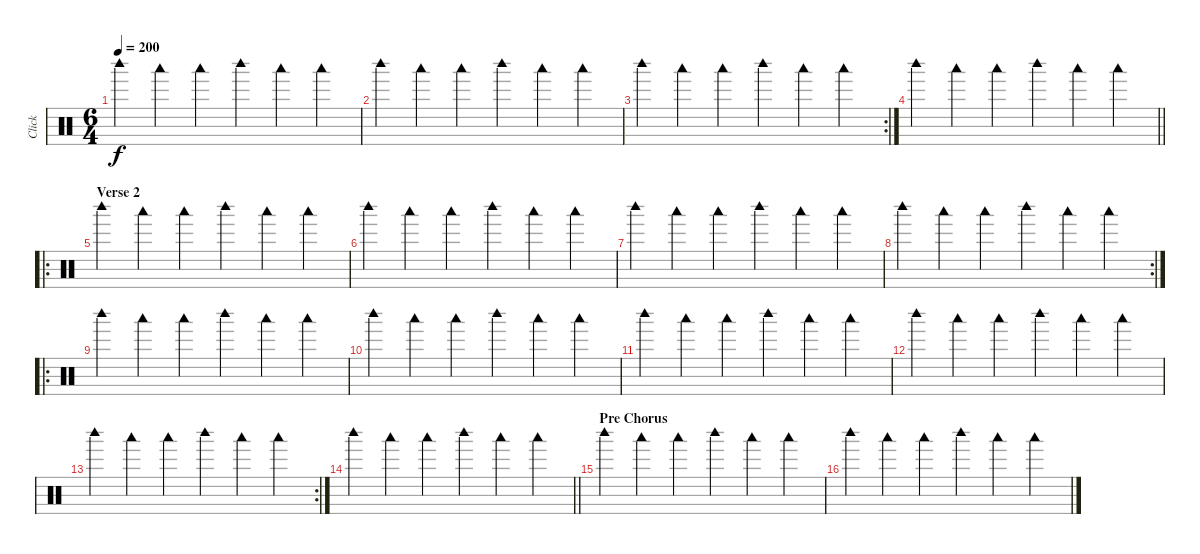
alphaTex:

\track ("Click" "Click") {mute instrument percussion}
\staff {score}
\articulation defaults
\ts (6 4)
\tempo 200
\clef neutral
\ks c "Woodblock high (hit)".4{dy f} "Woodblock low (hit)".4 "Woodblock low (hit)".4 "Woodblock high (hit)".4 "Woodblock low (hit)".4 "Woodblock low (hit)".4
|
"Woodblock high (hit)".4 "Woodblock low (hit)".4 "Woodblock low (hit)".4 "Woodblock high (hit)".4 "Woodblock low (hit)".4 "Woodblock low (hit)".4 |
\rc 2 "Woodblock high (hit)".4 "Woodblock low (hit)".4 "Woodblock low (hit)".4 "Woodblock high (hit)".4 "Woodblock low (hit)".4 "Woodblock low (hit)".4
|
\barLineRight lightlight "Woodblock high (hit)".4 "Woodblock low (hit)".4 "Woodblock low (hit)".4 "Woodblock high (hit)".4 "Woodblock low (hit)".4 "Woodblock low (hit)".4
|
\ro
\section ("" "Verse 2")
"Woodblock high (hit)".4 "Woodblock low (hit)".4 "Woodblock low (hit)".4 "Woodblock high (hit)".4 "Woodblock low (hit)".4 "Woodblock low (hit)".4 |
"Woodblock high (hit)".4 "Woodblock low (hit)".4 "Woodblock low (hit)".4 "Woodblock high (hit)".4 "Woodblock low (hit)".4 "Woodblock low (hit)".4 |
"Woodblock high (hit)".4 "Woodblock low (hit)".4 "Woodblock low (hit)".4 "Woodblock high (hit)".4 "Woodblock low (hit)".4 "Woodblock low (hit)".4 |
\rc 2 "Woodblock high (hit)".4 "Woodblock low (hit)".4 "Woodblock low (hit)".4 "Woodblock high (hit)".4 "Woodblock low (hit)".4 "Woodblock low (hit)".4
|
\ro "Woodblock high (hit)".4 "Woodblock low (hit)".4 "Woodblock low (hit)".4 "Woodblock high (hit)".4 "Woodblock low (hit)".4 "Woodblock low (hit)".4
|
"Woodblock high (hit)".4 "Woodblock low (hit)".4 "Woodblock low (hit)".4 "Woodblock high (hit)".4 "Woodblock low (hit)".4 "Woodblock low (hit)".4 |
"Woodblock high (hit)".4 "Woodblock low (hit)".4 "Woodblock low (hit)".4 "Woodblock high (hit)".4 "Woodblock low (hit)".4 "Woodblock low (hit)".4 |
"Woodblock high (hit)".4 "Woodblock low (hit)".4 "Woodblock low (hit)".4 "Woodblock high (hit)".4 "Woodblock low (hit)".4 "Woodblock low (hit)".4 |
\rc 2 "Woodblock high (hit)".4 "Woodblock low (hit)".4 "Woodblock low (hit)".4 "Woodblock high (hit)".4 "Woodblock low (hit)".4 "Woodblock low (hit)".4
|
\barLineRight lightlight "Woodblock high (hit)".4 "Woodblock low (hit)".4 "Woodblock low (hit)".4 "Woodblock high (hit)".4 "Woodblock low (hit)".4 "Woodblock low (hit)".4
|
\section ("" "Pre Chorus")
"Woodblock high (hit)".4 "Woodblock low (hit)".4 "Woodblock low (hit)".4 "Woodblock high (hit)".4 "Woodblock low (hit)".4 "Woodblock low (hit)".4 |
"Woodblock high (hit)".4 "Woodblock low (hit)".4 "Woodblock low (hit)".4 "Woodblock high (hit)".4 "Woodblock low (hit)".4 "Woodblock low (hit)".4
